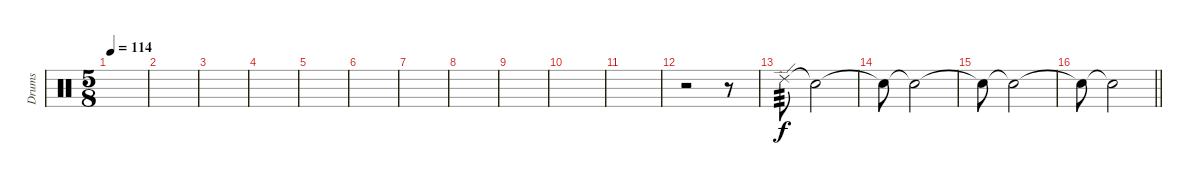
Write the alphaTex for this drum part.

\track ("Drums" "Drums") {instrument percussion}
\staff {score}
\articulation defaults
\ts (5 8)
\tempo 114
\clef neutral
\ks c
|
|
|
|
|
|
|
|
|
|
|
r.2{volume 0} r.8 |
"Ride (edge) 2".8{tp 3 dy f} "Snare (hit)"{t}.2{volume 12} |
"Snare (hit)"{t}.8 "Snare (hit)"{t}.2 |
"Snare (hit)"{t}.8 "Snare (hit)"{t}.2 |
\barLineRight lightlight "Snare (hit)"{t}.8 "Snare (hit)"{t}.2
